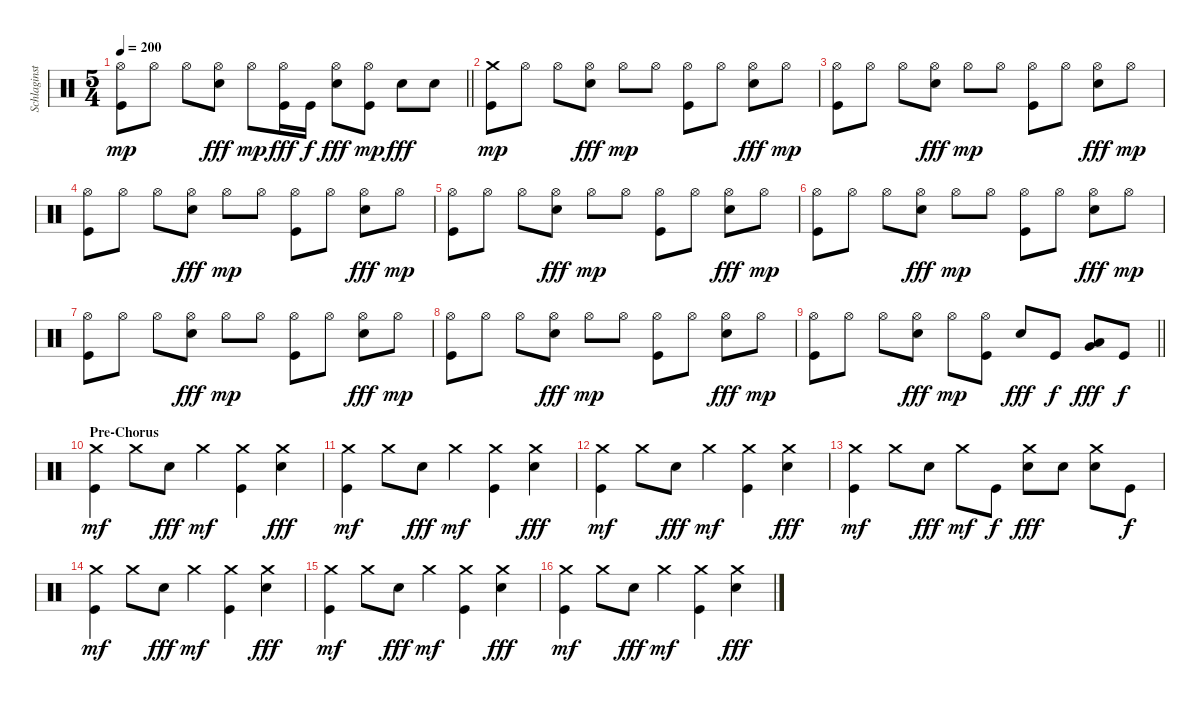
\track ("Schlaginstrumente - Auswahl" "Schlaginst") {instrument percussion}
\staff {score}
\articulation defaults
\ts (5 4)
\tempo 200
\clef neutral
\barLineRight lightlight
\ks c
("Hi-Hat (open)" "Kick (hit)").8{dy mp} "Hi-Hat (open)".8 "Hi-Hat (open)".8 ("Hi-Hat (open)" "Snare (hit) 2").8{dy fff} "Hi-Hat (open)".8{dy mp} ("Hi-Hat (open)" "Kick (hit)").16{dy fff} "Kick (hit)".16{dy f} ("Hi-Hat (open)" "Snare (hit) 2").8{dy fff} ("Hi-Hat (open)" "Kick (hit)").8{dy mp} "Snare (hit) 2".8{dy fff} "Snare (hit) 2".8 |
("Crash medium (hit)" "Kick (hit)").8{dy mp} "Hi-Hat (open)".8 "Hi-Hat (open)".8 ("Hi-Hat (open)" "Snare (hit) 2").8{dy fff} "Hi-Hat (open)".8{dy mp} "Hi-Hat (open)".8 ("Hi-Hat (open)" "Kick (hit)").8 "Hi-Hat (open)".8 ("Hi-Hat (open)" "Snare (hit) 2").8{dy fff} "Hi-Hat (open)".8{dy mp} |
("Hi-Hat (open)" "Kick (hit)").8 "Hi-Hat (open)".8 "Hi-Hat (open)".8 ("Hi-Hat (open)" "Snare (hit) 2").8{dy fff} "Hi-Hat (open)".8{dy mp} "Hi-Hat (open)".8 ("Hi-Hat (open)" "Kick (hit)").8 "Hi-Hat (open)".8 ("Hi-Hat (open)" "Snare (hit) 2").8{dy fff} "Hi-Hat (open)".8{dy mp} |
("Hi-Hat (open)" "Kick (hit)").8 "Hi-Hat (open)".8 "Hi-Hat (open)".8 ("Hi-Hat (open)" "Snare (hit) 2").8{dy fff} "Hi-Hat (open)".8{dy mp} "Hi-Hat (open)".8 ("Hi-Hat (open)" "Kick (hit)").8 "Hi-Hat (open)".8 ("Hi-Hat (open)" "Snare (hit) 2").8{dy fff} "Hi-Hat (open)".8{dy mp} |
("Hi-Hat (open)" "Kick (hit)").8 "Hi-Hat (open)".8 "Hi-Hat (open)".8 ("Hi-Hat (open)" "Snare (hit) 2").8{dy fff} "Hi-Hat (open)".8{dy mp} "Hi-Hat (open)".8 ("Hi-Hat (open)" "Kick (hit)").8 "Hi-Hat (open)".8 ("Hi-Hat (open)" "Snare (hit) 2").8{dy fff} "Hi-Hat (open)".8{dy mp} |
("Hi-Hat (open)" "Kick (hit)").8 "Hi-Hat (open)".8 "Hi-Hat (open)".8 ("Hi-Hat (open)" "Snare (hit) 2").8{dy fff} "Hi-Hat (open)".8{dy mp} "Hi-Hat (open)".8 ("Hi-Hat (open)" "Kick (hit)").8 "Hi-Hat (open)".8 ("Hi-Hat (open)" "Snare (hit) 2").8{dy fff} "Hi-Hat (open)".8{dy mp} |
("Hi-Hat (open)" "Kick (hit)").8 "Hi-Hat (open)".8 "Hi-Hat (open)".8 ("Hi-Hat (open)" "Snare (hit) 2").8{dy fff} "Hi-Hat (open)".8{dy mp} "Hi-Hat (open)".8 ("Hi-Hat (open)" "Kick (hit)").8 "Hi-Hat (open)".8 ("Hi-Hat (open)" "Snare (hit) 2").8{dy fff} "Hi-Hat (open)".8{dy mp} |
("Hi-Hat (open)" "Kick (hit)").8 "Hi-Hat (open)".8 "Hi-Hat (open)".8 ("Hi-Hat (open)" "Snare (hit) 2").8{dy fff} "Hi-Hat (open)".8{dy mp} "Hi-Hat (open)".8 ("Hi-Hat (open)" "Kick (hit)").8 "Hi-Hat (open)".8 ("Hi-Hat (open)" "Snare (hit) 2").8{dy fff} "Hi-Hat (open)".8{dy mp} |
\barLineRight lightlight
("Hi-Hat (open)" "Kick (hit)").8 "Hi-Hat (open)".8 "Hi-Hat (open)".8 ("Hi-Hat (open)" "Snare (hit) 2").8{dy fff} "Hi-Hat (open)".8{dy mp} ("Hi-Hat (open)" "Kick (hit)").8 "Snare (hit) 2".8{dy fff} "Kick (hit)".8{dy f} ("Low Tom (hit)" "Very Low Tom (hit)").8{dy fff} "Kick (hit)".8{dy f} |
\section ("" "Pre-Chorus")
("Crash medium (hit)" "Kick (hit)").4{dy mf} "Crash medium (hit)".8 "Snare (hit) 2".8{dy fff} "Crash medium (hit)".4{dy mf} ("Crash medium (hit)" "Kick (hit)").4 ("Crash medium (hit)" "Snare (hit) 2").4{dy fff} |
("Crash medium (hit)" "Kick (hit)").4{dy mf} "Crash medium (hit)".8 "Snare (hit) 2".8{dy fff} "Crash medium (hit)".4{dy mf} ("Crash medium (hit)" "Kick (hit)").4 ("Crash medium (hit)" "Snare (hit) 2").4{dy fff} |
("Crash medium (hit)" "Kick (hit)").4{dy mf} "Crash medium (hit)".8 "Snare (hit) 2".8{dy fff} "Crash medium (hit)".4{dy mf} ("Crash medium (hit)" "Kick (hit)").4 ("Crash medium (hit)" "Snare (hit) 2").4{dy fff} |
("Crash medium (hit)" "Kick (hit)").4{dy mf} "Crash medium (hit)".8 "Snare (hit) 2".8{dy fff} "Crash medium (hit)".8{dy mf} "Kick (hit)".8{dy f} ("Crash medium (hit)" "Snare (hit) 2").8{dy fff} "Snare (hit) 2".8 ("Crash medium (hit)" "Snare (hit) 2").8 "Kick (hit)".8{dy f} |
("Crash medium (hit)" "Kick (hit)").4{dy mf} "Crash medium (hit)".8 "Snare (hit) 2".8{dy fff} "Crash medium (hit)".4{dy mf} ("Crash medium (hit)" "Kick (hit)").4 ("Crash medium (hit)" "Snare (hit) 2").4{dy fff} |
("Crash medium (hit)" "Kick (hit)").4{dy mf} "Crash medium (hit)".8 "Snare (hit) 2".8{dy fff} "Crash medium (hit)".4{dy mf} ("Crash medium (hit)" "Kick (hit)").4 ("Crash medium (hit)" "Snare (hit) 2").4{dy fff} |
("Crash medium (hit)" "Kick (hit)").4{dy mf} "Crash medium (hit)".8 "Snare (hit) 2".8{dy fff} "Crash medium (hit)".4{dy mf} ("Crash medium (hit)" "Kick (hit)").4 ("Crash medium (hit)" "Snare (hit) 2").4{dy fff}
